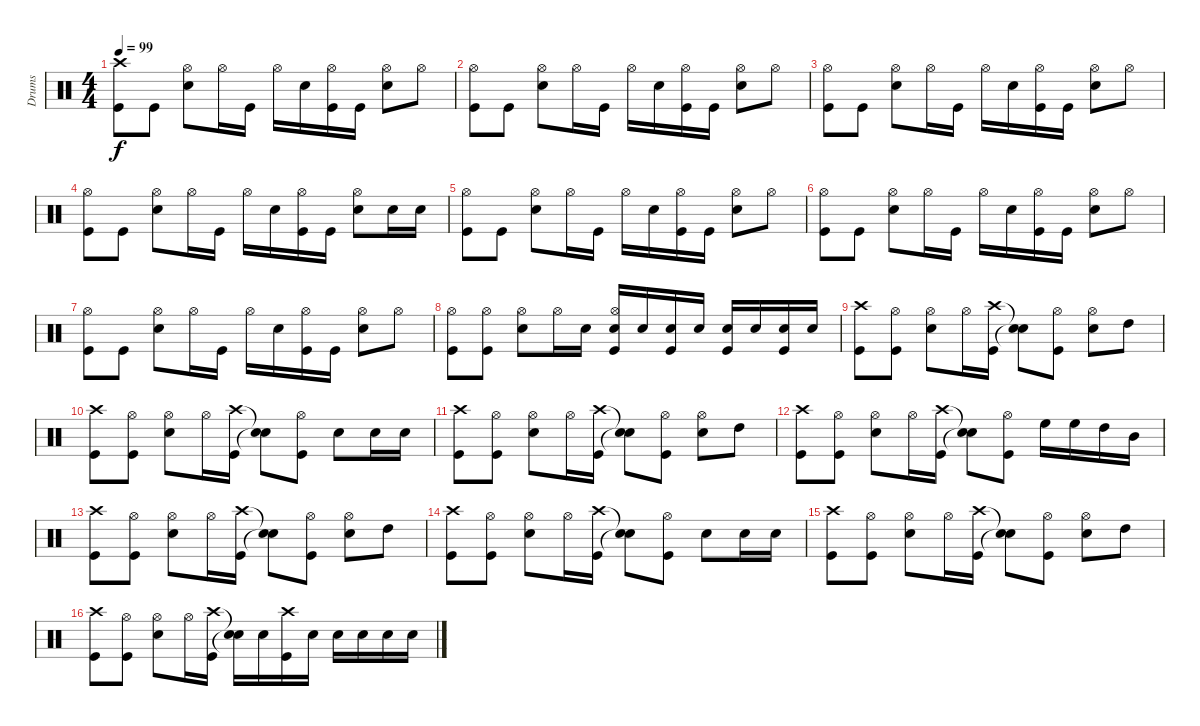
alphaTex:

\track ("Drums" "Drums") {instrument percussion}
\staff {score}
\articulation defaults
\ts (4 4)
\tempo 99
\clef neutral
\ks c
("Crash high (hit)" "Kick (hit)").8{dy f} "Kick (hit)".8 ("Hi-Hat (open)" "Electric Snare (hit)").8 "Hi-Hat (open)".16 "Kick (hit)".16 "Hi-Hat (open)".16 "Electric Snare (hit)".16 ("Hi-Hat (open)" "Kick (hit)").16 "Kick (hit)".16 ("Hi-Hat (open)" "Electric Snare (hit)").8 "Hi-Hat (open)".8 |
("Hi-Hat (open)" "Kick (hit)").8 "Kick (hit)".8 ("Hi-Hat (open)" "Electric Snare (hit)").8 "Hi-Hat (open)".16 "Kick (hit)".16 "Hi-Hat (open)".16 "Electric Snare (hit)".16 ("Hi-Hat (open)" "Kick (hit)").16 "Kick (hit)".16 ("Hi-Hat (open)" "Electric Snare (hit)").8 "Hi-Hat (open)".8 |
("Hi-Hat (open)" "Kick (hit)").8 "Kick (hit)".8 ("Hi-Hat (open)" "Electric Snare (hit)").8 "Hi-Hat (open)".16 "Kick (hit)".16 "Hi-Hat (open)".16 "Electric Snare (hit)".16 ("Hi-Hat (open)" "Kick (hit)").16 "Kick (hit)".16 ("Hi-Hat (open)" "Electric Snare (hit)").8 "Hi-Hat (open)".8 |
("Hi-Hat (open)" "Kick (hit)").8 "Kick (hit)".8 ("Hi-Hat (open)" "Electric Snare (hit)").8 "Hi-Hat (open)".16 "Kick (hit)".16 "Hi-Hat (open)".16 "Electric Snare (hit)".16 ("Hi-Hat (open)" "Kick (hit)").16 "Kick (hit)".16 ("Hi-Hat (open)" "Electric Snare (hit)").8 "Electric Snare (hit)".16 "Electric Snare (hit)".16 |
("Hi-Hat (open)" "Kick (hit)").8 "Kick (hit)".8 ("Hi-Hat (open)" "Electric Snare (hit)").8 "Hi-Hat (open)".16 "Kick (hit)".16 "Hi-Hat (open)".16 "Electric Snare (hit)".16 ("Hi-Hat (open)" "Kick (hit)").16 "Kick (hit)".16 ("Hi-Hat (open)" "Electric Snare (hit)").8 "Hi-Hat (open)".8 |
("Hi-Hat (open)" "Kick (hit)").8 "Kick (hit)".8 ("Hi-Hat (open)" "Electric Snare (hit)").8 "Hi-Hat (open)".16 "Kick (hit)".16 "Hi-Hat (open)".16 "Electric Snare (hit)".16 ("Hi-Hat (open)" "Kick (hit)").16 "Kick (hit)".16 ("Hi-Hat (open)" "Electric Snare (hit)").8 "Hi-Hat (open)".8 |
("Hi-Hat (open)" "Kick (hit)").8 "Kick (hit)".8 ("Hi-Hat (open)" "Electric Snare (hit)").8 "Hi-Hat (open)".16 "Kick (hit)".16 "Hi-Hat (open)".16 "Electric Snare (hit)".16 ("Hi-Hat (open)" "Kick (hit)").16 "Kick (hit)".16 ("Hi-Hat (open)" "Electric Snare (hit)").8 "Hi-Hat (open)".8 |
("Hi-Hat (open)" "Kick (hit)").8 ("Hi-Hat (open)" "Kick (hit)").8 ("Hi-Hat (open)" "Electric Snare (hit)").8 "Hi-Hat (open)".16 "Electric Snare (hit)".16 ("Hi-Hat (open)" "Electric Snare (hit)" "Kick (hit)").16 "Electric Snare (hit)".16 ("Electric Snare (hit)" "Kick (hit)").16 "Electric Snare (hit)".16 ("Electric Snare (hit)" "Kick (hit)").16 "Electric Snare (hit)".16 ("Electric Snare (hit)" "Kick (hit)").16 "Electric Snare (hit)".16 |
("Crash high (hit)" "Kick (hit)").8 ("Hi-Hat (open)" "Kick (hit)").8 ("Hi-Hat (open)" "Electric Snare (hit)").8 "Hi-Hat (open)".16 ("Crash high (hit)" "Kick (hit)").16 ("Snare (hit)"{t} "Snare (hit)"{t}).8 ("Hi-Hat (open)" "Kick (hit)").8 ("Hi-Hat (open)" "Electric Snare (hit)").8 "High Tom (hit)".8 |
("Crash high (hit)" "Kick (hit)").8 ("Hi-Hat (open)" "Kick (hit)").8 ("Hi-Hat (open)" "Electric Snare (hit)").8 "Hi-Hat (open)".16 ("Crash high (hit)" "Kick (hit)").16 ("Snare (hit)"{t} "Snare (hit)"{t}).8 ("Hi-Hat (open)" "Kick (hit)").8 "Electric Snare (hit)".8 "Electric Snare (hit)".16 "Electric Snare (hit)".16 |
("Crash high (hit)" "Kick (hit)").8 ("Hi-Hat (open)" "Kick (hit)").8 ("Hi-Hat (open)" "Electric Snare (hit)").8 "Hi-Hat (open)".16 ("Crash high (hit)" "Kick (hit)").16 ("Snare (hit)"{t} "Snare (hit)"{t}).8 ("Hi-Hat (open)" "Kick (hit)").8 ("Hi-Hat (open)" "Electric Snare (hit)").8 "High Tom (hit)".8 |
("Crash high (hit)" "Kick (hit)").8 ("Hi-Hat (open)" "Kick (hit)").8 ("Hi-Hat (open)" "Electric Snare (hit)").8 "Hi-Hat (open)".16 ("Crash high (hit)" "Kick (hit)").16 ("Snare (hit)"{t} "Snare (hit)"{t}).8 ("Hi-Hat (open)" "Kick (hit)").8 "High Floor Tom (hit)".16 "High Floor Tom (hit)".16 "High Tom (hit)".16 "Mid Tom (hit)".16 |
("Crash high (hit)" "Kick (hit)").8 ("Hi-Hat (open)" "Kick (hit)").8 ("Hi-Hat (open)" "Electric Snare (hit)").8 "Hi-Hat (open)".16 ("Crash high (hit)" "Kick (hit)").16 ("Snare (hit)"{t} "Snare (hit)"{t}).8 ("Hi-Hat (open)" "Kick (hit)").8 ("Hi-Hat (open)" "Electric Snare (hit)").8 "High Tom (hit)".8 |
("Crash high (hit)" "Kick (hit)").8 ("Hi-Hat (open)" "Kick (hit)").8 ("Hi-Hat (open)" "Electric Snare (hit)").8 "Hi-Hat (open)".16 ("Crash high (hit)" "Kick (hit)").16 ("Snare (hit)"{t} "Snare (hit)"{t}).8 ("Hi-Hat (open)" "Kick (hit)").8 "Electric Snare (hit)".8 "Electric Snare (hit)".16 "Electric Snare (hit)".16 |
("Crash high (hit)" "Kick (hit)").8 ("Hi-Hat (open)" "Kick (hit)").8 ("Hi-Hat (open)" "Electric Snare (hit)").8 "Hi-Hat (open)".16 ("Crash high (hit)" "Kick (hit)").16 ("Snare (hit)"{t} "Snare (hit)"{t}).8 ("Hi-Hat (open)" "Kick (hit)").8 ("Hi-Hat (open)" "Electric Snare (hit)").8 "High Tom (hit)".8 |
("Crash high (hit)" "Kick (hit)").8 ("Hi-Hat (open)" "Kick (hit)").8 ("Hi-Hat (open)" "Electric Snare (hit)").8 "Hi-Hat (open)".16 ("Crash high (hit)" "Kick (hit)").16 ("Snare (hit)"{t} "Snare (hit)"{t}).16 "Electric Snare (hit)".16 ("Crash high (hit)" "Kick (hit)").16 "Electric Snare (hit)".16 "Electric Snare (hit)".16 "Electric Snare (hit)".16 "Electric Snare (hit)".16 "Electric Snare (hit)".16
